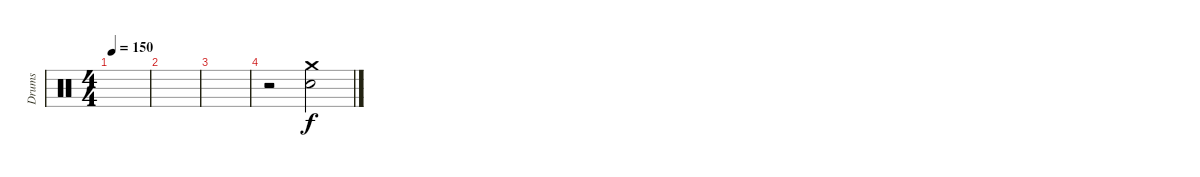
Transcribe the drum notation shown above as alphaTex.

\track ("Drums" "Drums") {instrument percussion}
\staff {score}
\articulation defaults
\ts (4 4)
\tempo 150
\clef neutral
\ks aminor
|
|
|
r.2 ("Crash medium (hit)" "Snare (hit) 2").2
